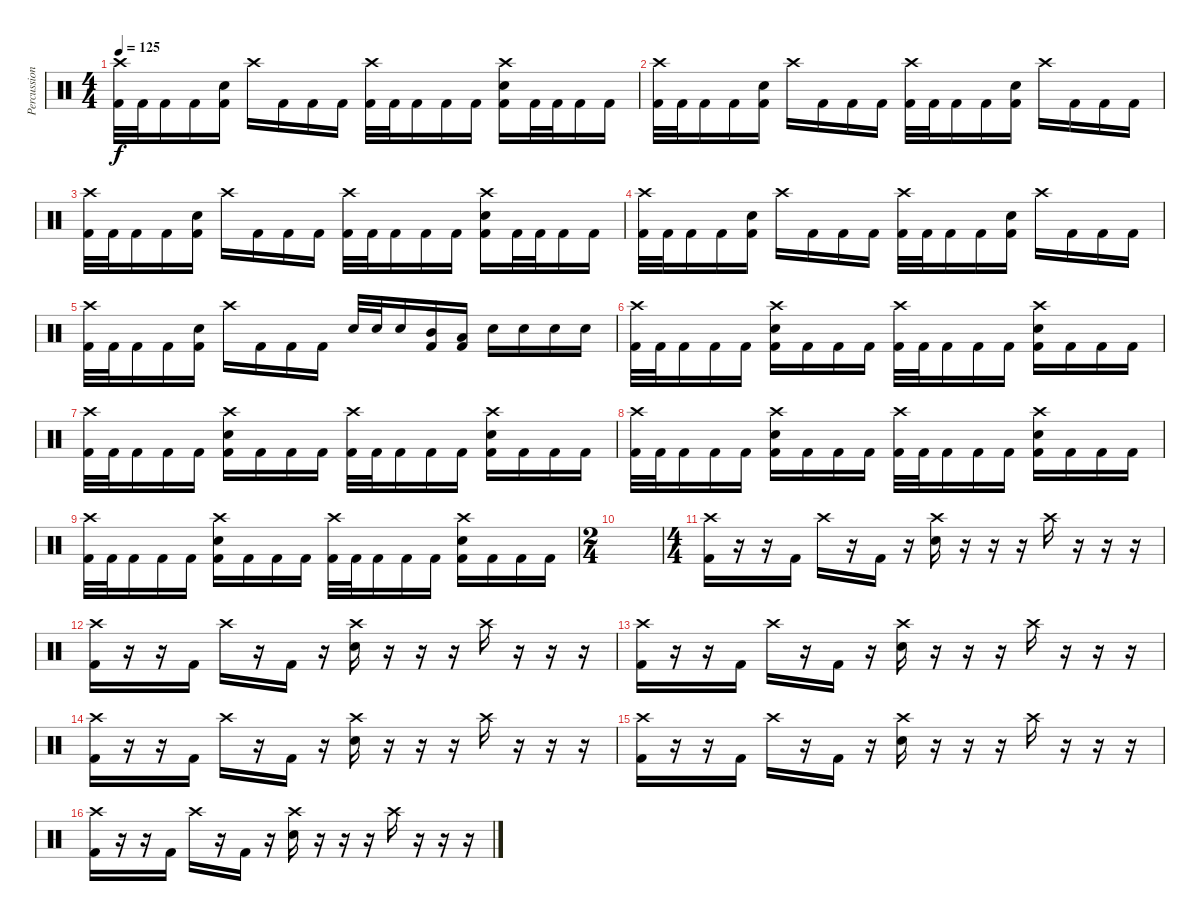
\track ("Percussion" "Percussion") {instrument percussion}
\staff {score}
\articulation defaults
\ts (4 4)
\tempo 125
\clef neutral
\ks c
("Crash high (hit)" "Kick (hit) 2").32{dy f} "Kick (hit) 2".32 "Kick (hit) 2".16 "Kick (hit) 2".16 ("Snare (hit) 2" "Kick (hit) 2").16 "Crash high (hit)".16 "Kick (hit) 2".16 "Kick (hit) 2".16 "Kick (hit) 2".16 ("Crash high (hit)" "Kick (hit) 2").32 "Kick (hit) 2".32 "Kick (hit) 2".16 "Kick (hit) 2".16 "Kick (hit) 2".16 ("Crash high (hit)" "Snare (hit) 2" "Kick (hit) 2").16 "Kick (hit) 2".32 "Kick (hit) 2".32 "Kick (hit) 2".16 "Kick (hit) 2".16 |
("Crash high (hit)" "Kick (hit) 2").32 "Kick (hit) 2".32 "Kick (hit) 2".16 "Kick (hit) 2".16 ("Snare (hit) 2" "Kick (hit) 2").16 "Crash high (hit)".16 "Kick (hit) 2".16 "Kick (hit) 2".16 "Kick (hit) 2".16 ("Crash high (hit)" "Kick (hit) 2").32 "Kick (hit) 2".32 "Kick (hit) 2".16 "Kick (hit) 2".16 ("Snare (hit) 2" "Kick (hit) 2").16 "Crash high (hit)".16 "Kick (hit) 2".16 "Kick (hit) 2".16 "Kick (hit) 2".16 |
("Crash high (hit)" "Kick (hit) 2").32 "Kick (hit) 2".32 "Kick (hit) 2".16 "Kick (hit) 2".16 ("Snare (hit) 2" "Kick (hit) 2").16 "Crash high (hit)".16 "Kick (hit) 2".16 "Kick (hit) 2".16 "Kick (hit) 2".16 ("Crash high (hit)" "Kick (hit) 2").32 "Kick (hit) 2".32 "Kick (hit) 2".16 "Kick (hit) 2".16 "Kick (hit) 2".16 ("Crash high (hit)" "Snare (hit) 2" "Kick (hit) 2").16 "Kick (hit) 2".32 "Kick (hit) 2".32 "Kick (hit) 2".16 "Kick (hit) 2".16 |
("Crash high (hit)" "Kick (hit) 2").32 "Kick (hit) 2".32 "Kick (hit) 2".16 "Kick (hit) 2".16 ("Snare (hit) 2" "Kick (hit) 2").16 "Crash high (hit)".16 "Kick (hit) 2".16 "Kick (hit) 2".16 "Kick (hit) 2".16 ("Crash high (hit)" "Kick (hit) 2").32 "Kick (hit) 2".32 "Kick (hit) 2".16 "Kick (hit) 2".16 ("Snare (hit) 2" "Kick (hit) 2").16 "Crash high (hit)".16 "Kick (hit) 2".16 "Kick (hit) 2".16 "Kick (hit) 2".16 |
("Crash high (hit)" "Kick (hit) 2").32 "Kick (hit) 2".32 "Kick (hit) 2".16 "Kick (hit) 2".16 ("Snare (hit) 2" "Kick (hit) 2").16 "Crash high (hit)".16 "Kick (hit) 2".16 "Kick (hit) 2".16 "Kick (hit) 2".16 "Snare (hit) 2".32 "Snare (hit) 2".32 "Snare (hit) 2".16 ("Mid Tom (hit)" "Kick (hit) 2").16 ("Low Tom (hit)" "Kick (hit) 2").16 "Snare (hit) 2".16 "Snare (hit) 2".16 "Snare (hit) 2".16 "Snare (hit) 2".16 |
("Crash high (hit)" "Kick (hit) 2").32 "Kick (hit) 2".32 "Kick (hit) 2".16 "Kick (hit) 2".16 "Kick (hit) 2".16 ("Crash high (hit)" "Snare (hit) 2" "Kick (hit) 2").16 "Kick (hit) 2".16 "Kick (hit) 2".16 "Kick (hit) 2".16 ("Crash high (hit)" "Kick (hit) 2").32 "Kick (hit) 2".32 "Kick (hit) 2".16 "Kick (hit) 2".16 "Kick (hit) 2".16 ("Crash high (hit)" "Snare (hit) 2" "Kick (hit) 2").16 "Kick (hit) 2".16 "Kick (hit) 2".16 "Kick (hit) 2".16 |
("Crash high (hit)" "Kick (hit) 2").32 "Kick (hit) 2".32 "Kick (hit) 2".16 "Kick (hit) 2".16 "Kick (hit) 2".16 ("Crash high (hit)" "Snare (hit) 2" "Kick (hit) 2").16 "Kick (hit) 2".16 "Kick (hit) 2".16 "Kick (hit) 2".16 ("Crash high (hit)" "Kick (hit) 2").32 "Kick (hit) 2".32 "Kick (hit) 2".16 "Kick (hit) 2".16 "Kick (hit) 2".16 ("Crash high (hit)" "Snare (hit) 2" "Kick (hit) 2").16 "Kick (hit) 2".16 "Kick (hit) 2".16 "Kick (hit) 2".16 |
("Crash high (hit)" "Kick (hit) 2").32 "Kick (hit) 2".32 "Kick (hit) 2".16 "Kick (hit) 2".16 "Kick (hit) 2".16 ("Crash high (hit)" "Snare (hit) 2" "Kick (hit) 2").16 "Kick (hit) 2".16 "Kick (hit) 2".16 "Kick (hit) 2".16 ("Crash high (hit)" "Kick (hit) 2").32 "Kick (hit) 2".32 "Kick (hit) 2".16 "Kick (hit) 2".16 "Kick (hit) 2".16 ("Crash high (hit)" "Snare (hit) 2" "Kick (hit) 2").16 "Kick (hit) 2".16 "Kick (hit) 2".16 "Kick (hit) 2".16 |
("Crash high (hit)" "Kick (hit) 2").32 "Kick (hit) 2".32 "Kick (hit) 2".16 "Kick (hit) 2".16 "Kick (hit) 2".16 ("Crash high (hit)" "Snare (hit) 2" "Kick (hit) 2").16 "Kick (hit) 2".16 "Kick (hit) 2".16 "Kick (hit) 2".16 ("Crash high (hit)" "Kick (hit) 2").32 "Kick (hit) 2".32 "Kick (hit) 2".16 "Kick (hit) 2".16 "Kick (hit) 2".16 ("Crash high (hit)" "Snare (hit) 2" "Kick (hit) 2").16 "Kick (hit) 2".16 "Kick (hit) 2".16 "Kick (hit) 2".16 |
\ts (2 4)
|
\ts (4 4)
("Crash high (hit)" "Kick (hit) 2").16 r.16 r.16 "Kick (hit) 2".16 "Crash high (hit)".16 r.16 "Kick (hit) 2".16 r.16 ("Crash high (hit)" "Snare (hit) 2").16 r.16 r.16 r.16 "Crash high (hit)".16 r.16 r.16 r.16 |
("Crash high (hit)" "Kick (hit) 2").16 r.16 r.16 "Kick (hit) 2".16 "Crash high (hit)".16 r.16 "Kick (hit) 2".16 r.16 ("Crash high (hit)" "Snare (hit) 2").16 r.16 r.16 r.16 "Crash high (hit)".16 r.16 r.16 r.16 |
("Crash high (hit)" "Kick (hit) 2").16 r.16 r.16 "Kick (hit) 2".16 "Crash high (hit)".16 r.16 "Kick (hit) 2".16 r.16 ("Crash high (hit)" "Snare (hit) 2").16 r.16 r.16 r.16 "Crash high (hit)".16 r.16 r.16 r.16 |
("Crash high (hit)" "Kick (hit) 2").16 r.16 r.16 "Kick (hit) 2".16 "Crash high (hit)".16 r.16 "Kick (hit) 2".16 r.16 ("Crash high (hit)" "Snare (hit) 2").16 r.16 r.16 r.16 "Crash high (hit)".16 r.16 r.16 r.16 |
("Crash high (hit)" "Kick (hit) 2").16 r.16 r.16 "Kick (hit) 2".16 "Crash high (hit)".16 r.16 "Kick (hit) 2".16 r.16 ("Crash high (hit)" "Snare (hit) 2").16 r.16 r.16 r.16 "Crash high (hit)".16 r.16 r.16 r.16 |
("Crash high (hit)" "Kick (hit) 2").16 r.16 r.16 "Kick (hit) 2".16 "Crash high (hit)".16 r.16 "Kick (hit) 2".16 r.16 ("Crash high (hit)" "Snare (hit) 2").16 r.16 r.16 r.16 "Crash high (hit)".16 r.16 r.16 r.16
